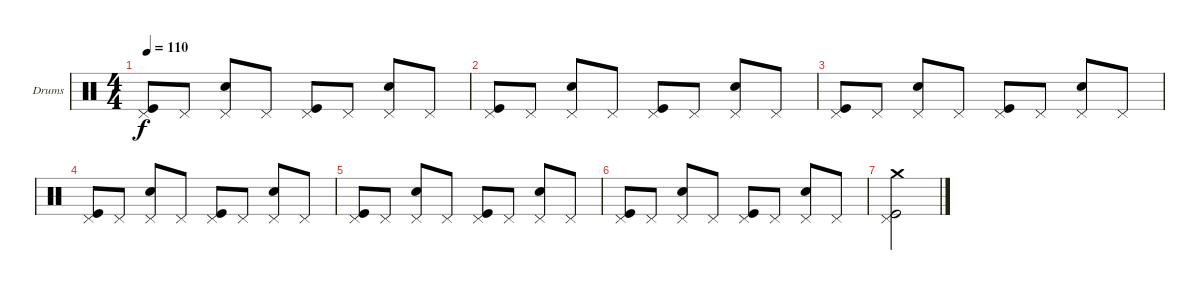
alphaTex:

\defaultSystemsLayout 4
\bracketExtendMode groupsimilarinstruments
\firstSystemTrackNameOrientation horizontal
\otherSystemsTrackNameOrientation horizontal
\track ("Drumkit" "Drums") {instrument percussion}
\staff {score}
\articulation defaults
\ts (4 4)
\tempo 110
\clef neutral
\ks c
("Pedal Hi-Hat (hit)" "Kick (hit)").8{dy f} "Pedal Hi-Hat (hit)".8 ("Snare (hit) 2" "Pedal Hi-Hat (hit)").8 "Pedal Hi-Hat (hit)".8 ("Pedal Hi-Hat (hit)" "Kick (hit)").8 "Pedal Hi-Hat (hit)".8 ("Snare (hit) 2" "Pedal Hi-Hat (hit)").8 "Pedal Hi-Hat (hit)".8 |
("Pedal Hi-Hat (hit)" "Kick (hit)").8 "Pedal Hi-Hat (hit)".8 ("Snare (hit) 2" "Pedal Hi-Hat (hit)").8 "Pedal Hi-Hat (hit)".8 ("Pedal Hi-Hat (hit)" "Kick (hit)").8 "Pedal Hi-Hat (hit)".8 ("Snare (hit) 2" "Pedal Hi-Hat (hit)").8 "Pedal Hi-Hat (hit)".8 |
("Pedal Hi-Hat (hit)" "Kick (hit)").8 "Pedal Hi-Hat (hit)".8 ("Snare (hit) 2" "Pedal Hi-Hat (hit)").8 "Pedal Hi-Hat (hit)".8 ("Pedal Hi-Hat (hit)" "Kick (hit)").8 "Pedal Hi-Hat (hit)".8 ("Snare (hit) 2" "Pedal Hi-Hat (hit)").8 "Pedal Hi-Hat (hit)".8 |
("Pedal Hi-Hat (hit)" "Kick (hit)").8 "Pedal Hi-Hat (hit)".8 ("Snare (hit) 2" "Pedal Hi-Hat (hit)").8 "Pedal Hi-Hat (hit)".8 ("Pedal Hi-Hat (hit)" "Kick (hit)").8 "Pedal Hi-Hat (hit)".8 ("Snare (hit) 2" "Pedal Hi-Hat (hit)").8 "Pedal Hi-Hat (hit)".8 |
("Pedal Hi-Hat (hit)" "Kick (hit)").8 "Pedal Hi-Hat (hit)".8 ("Snare (hit) 2" "Pedal Hi-Hat (hit)").8 "Pedal Hi-Hat (hit)".8 ("Pedal Hi-Hat (hit)" "Kick (hit)").8 "Pedal Hi-Hat (hit)".8 ("Snare (hit) 2" "Pedal Hi-Hat (hit)").8 "Pedal Hi-Hat (hit)".8 |
("Pedal Hi-Hat (hit)" "Kick (hit)").8 "Pedal Hi-Hat (hit)".8 ("Snare (hit) 2" "Pedal Hi-Hat (hit)").8 "Pedal Hi-Hat (hit)".8 ("Pedal Hi-Hat (hit)" "Kick (hit)").8 "Pedal Hi-Hat (hit)".8 ("Snare (hit) 2" "Pedal Hi-Hat (hit)").8 "Pedal Hi-Hat (hit)".8 |
("Kick (hit)" "Crash medium (hit)" "Pedal Hi-Hat (hit)").2
